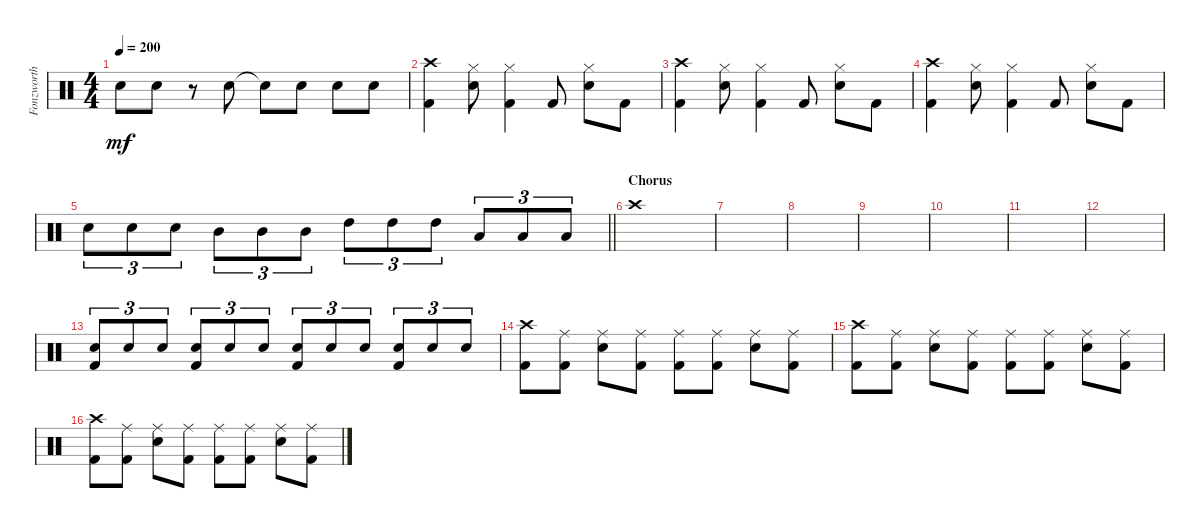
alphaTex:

\track ("Fonzworth Fred" "Fonzworth ") {instrument percussion}
\staff {score}
\articulation defaults
\ts (4 4)
\tempo 200
\clef neutral
\ks c "Snare (hit) 2".8{dy mf} "Snare (hit) 2".8
r.8 "Snare (hit) 2".8 "Snare (hit)"{t}.8 "Snare (hit) 2".8 "Snare (hit) 2".8 "Snare (hit) 2".8 |
("Crash high (hit)" "Kick (hit) 2").4 ("Hi-Hat (closed)" "Snare (hit) 2").8 ("Hi-Hat (closed)" "Kick (hit) 2").4 "Kick (hit) 2".8 ("Hi-Hat (closed)" "Snare (hit) 2").8 "Kick (hit) 2".8 |
("Crash high (hit)" "Kick (hit) 2").4 ("Hi-Hat (closed)" "Snare (hit) 2").8 ("Hi-Hat (closed)" "Kick (hit) 2").4 "Kick (hit) 2".8 ("Hi-Hat (closed)" "Snare (hit) 2").8 "Kick (hit) 2".8 |
("Crash high (hit)" "Kick (hit) 2").4 ("Hi-Hat (closed)" "Snare (hit) 2").8 ("Hi-Hat (closed)" "Kick (hit) 2").4 "Kick (hit) 2".8 ("Hi-Hat (closed)" "Snare (hit) 2").8 "Kick (hit) 2".8 |
\barLineRight lightlight "Snare (hit) 2".8{tu (3 2)} "Snare (hit) 2".8{tu (3 2)} "Snare (hit) 2".8{tu (3 2)} "Mid Tom (hit)".8{tu (3 2)} "Mid Tom (hit)".8{tu (3 2)} "Mid Tom (hit)".8{tu (3 2)} "High Tom (hit)".8{tu (3 2)} "High Tom (hit)".8{tu (3 2)} "High Tom (hit)".8{tu (3 2)} "Low Floor Tom (hit)".8{tu (3 2)} "Low Floor Tom (hit)".8{tu (3 2)} "Low Floor Tom (hit)".8{tu (3 2)}
|
\section ("" "Chorus")
"Crash high (hit)".1 |
|
|
|
|
|
|
("Snare (hit) 2" "Kick (hit) 2").8{tu (3 2)} "Snare (hit) 2".8{tu (3 2)} "Snare (hit) 2".8{tu (3 2)} ("Snare (hit) 2" "Kick (hit) 2").8{tu (3 2)} "Snare (hit) 2".8{tu (3 2)} "Snare (hit) 2".8{tu (3 2)} ("Snare (hit) 2" "Kick (hit) 2").8{tu (3 2)} "Snare (hit) 2".8{tu (3 2)} "Snare (hit) 2".8{tu (3 2)} ("Snare (hit) 2" "Kick (hit) 2").8{tu (3 2)} "Snare (hit) 2".8{tu (3 2)} "Snare (hit) 2".8{tu (3 2)} |
("Crash high (hit)" "Kick (hit) 2").8 ("Ride (middle)" "Kick (hit) 2").8 ("Ride (middle)" "Snare (hit) 2").8 ("Ride (middle)" "Kick (hit) 2").8 ("Ride (middle)" "Kick (hit) 2").8 ("Ride (middle)" "Kick (hit) 2").8 ("Ride (middle)" "Snare (hit) 2").8 ("Ride (middle)" "Kick (hit) 2").8 |
("Crash high (hit)" "Kick (hit) 2").8 ("Ride (middle)" "Kick (hit) 2").8 ("Ride (middle)" "Snare (hit) 2").8 ("Ride (middle)" "Kick (hit) 2").8 ("Ride (middle)" "Kick (hit) 2").8 ("Ride (middle)" "Kick (hit) 2").8 ("Ride (middle)" "Snare (hit) 2").8 ("Ride (middle)" "Kick (hit) 2").8 |
("Crash high (hit)" "Kick (hit) 2").8 ("Ride (middle)" "Kick (hit) 2").8 ("Ride (middle)" "Snare (hit) 2").8 ("Ride (middle)" "Kick (hit) 2").8 ("Ride (middle)" "Kick (hit) 2").8 ("Ride (middle)" "Kick (hit) 2").8 ("Ride (middle)" "Snare (hit) 2").8 ("Ride (middle)" "Kick (hit) 2").8
